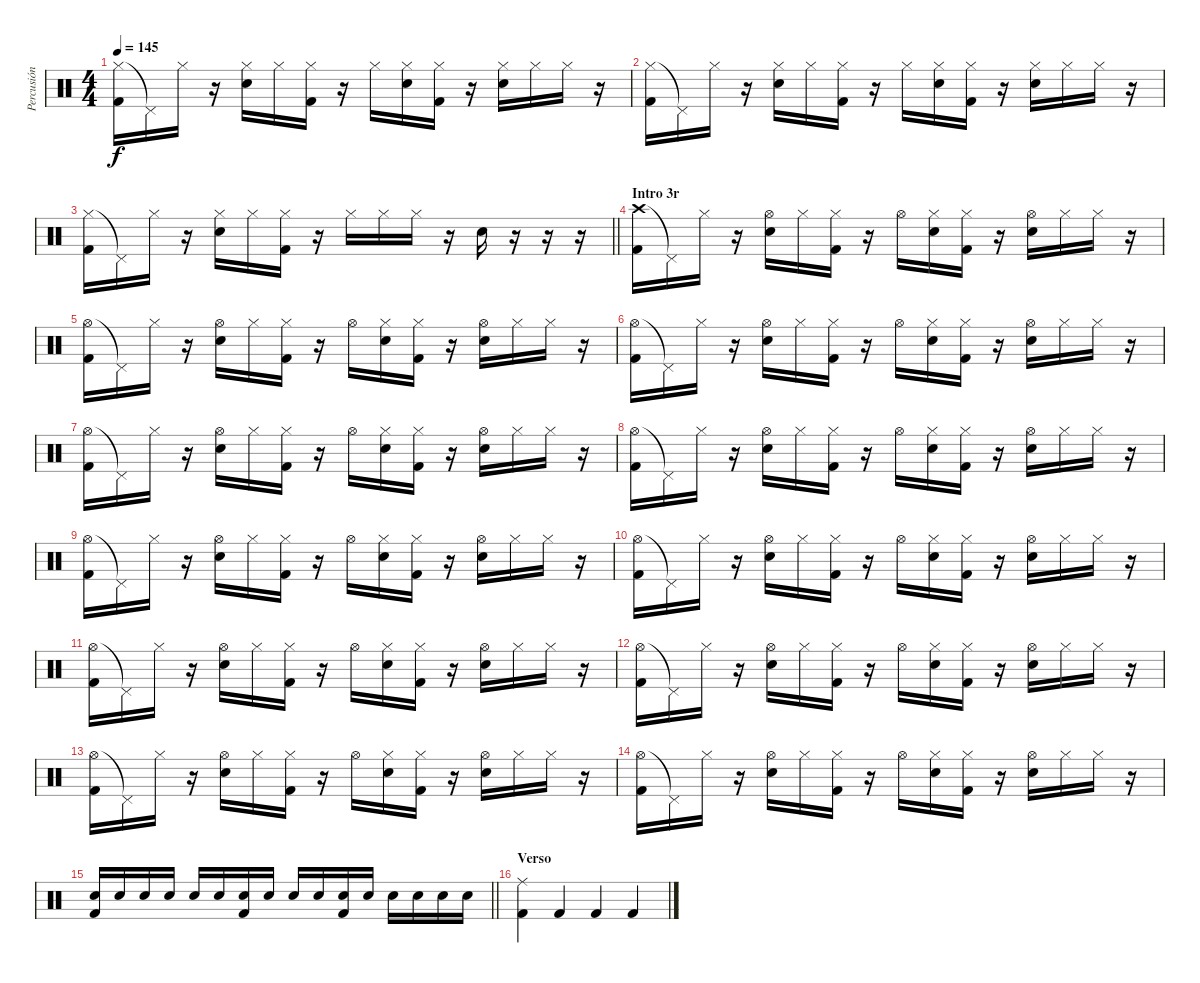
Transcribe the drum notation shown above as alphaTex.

\track ("Percusión" "Percusión") {instrument percussion}
\staff {score}
\articulation defaults
\ts (4 4)
\tempo 145
\clef neutral
\ks c
("Hi-Hat (closed)" "Kick (hit) 2").16{dy f} "Pedal Hi-Hat (hit)"{t}.16 "Hi-Hat (closed)".16 r.16 ("Hi-Hat (closed)" "Electric Snare (hit)").16 "Hi-Hat (closed)".16 ("Hi-Hat (closed)" "Kick (hit) 2").16 r.16 "Hi-Hat (closed)".16 ("Hi-Hat (closed)" "Electric Snare (hit)").16 ("Hi-Hat (closed)" "Kick (hit) 2").16 r.16 ("Hi-Hat (closed)" "Electric Snare (hit)").16 "Hi-Hat (closed)".16 "Hi-Hat (closed)".16 r.16 |
("Hi-Hat (closed)" "Kick (hit) 2").16 "Pedal Hi-Hat (hit)"{t}.16 "Hi-Hat (closed)".16 r.16 ("Hi-Hat (closed)" "Electric Snare (hit)").16 "Hi-Hat (closed)".16 ("Hi-Hat (closed)" "Kick (hit) 2").16 r.16 "Hi-Hat (closed)".16 ("Hi-Hat (closed)" "Electric Snare (hit)").16 ("Hi-Hat (closed)" "Kick (hit) 2").16 r.16 ("Hi-Hat (closed)" "Electric Snare (hit)").16 "Hi-Hat (closed)".16 "Hi-Hat (closed)".16 r.16 |
\barLineRight lightlight
("Hi-Hat (closed)" "Kick (hit) 2").16 "Pedal Hi-Hat (hit)"{t}.16 "Hi-Hat (closed)".16 r.16 ("Hi-Hat (closed)" "Electric Snare (hit)").16 "Hi-Hat (closed)".16 ("Hi-Hat (closed)" "Kick (hit) 2").16 r.16 "Hi-Hat (closed)".16 "Hi-Hat (closed)".16 "Hi-Hat (closed)".16 r.16 "Electric Snare (hit)".16 r.16 r.16 r.16 |
\section ("" "Intro 3r")
("Crash high (hit)" "Kick (hit) 2").16 "Pedal Hi-Hat (hit)"{t}.16 "Hi-Hat (closed)".16 r.16 ("Hi-Hat (open)" "Electric Snare (hit)").16 "Hi-Hat (closed)".16 ("Hi-Hat (closed)" "Kick (hit) 2").16 r.16 "Hi-Hat (open)".16 ("Hi-Hat (closed)" "Electric Snare (hit)").16 ("Hi-Hat (closed)" "Kick (hit) 2").16 r.16 ("Hi-Hat (open)" "Electric Snare (hit)").16 "Hi-Hat (closed)".16 "Hi-Hat (closed)".16 r.16 |
("Hi-Hat (open)" "Kick (hit) 2").16 "Pedal Hi-Hat (hit)"{t}.16 "Hi-Hat (closed)".16 r.16 ("Hi-Hat (open)" "Electric Snare (hit)").16 "Hi-Hat (closed)".16 ("Hi-Hat (closed)" "Kick (hit) 2").16 r.16 "Hi-Hat (open)".16 ("Hi-Hat (closed)" "Electric Snare (hit)").16 ("Hi-Hat (closed)" "Kick (hit) 2").16 r.16 ("Hi-Hat (open)" "Electric Snare (hit)").16 "Hi-Hat (closed)".16 "Hi-Hat (closed)".16 r.16 |
("Hi-Hat (open)" "Kick (hit) 2").16 "Pedal Hi-Hat (hit)"{t}.16 "Hi-Hat (closed)".16 r.16 ("Hi-Hat (open)" "Electric Snare (hit)").16 "Hi-Hat (closed)".16 ("Hi-Hat (closed)" "Kick (hit) 2").16 r.16 "Hi-Hat (open)".16 ("Hi-Hat (closed)" "Electric Snare (hit)").16 ("Hi-Hat (closed)" "Kick (hit) 2").16 r.16 ("Hi-Hat (open)" "Electric Snare (hit)").16 "Hi-Hat (closed)".16 "Hi-Hat (closed)".16 r.16 |
("Hi-Hat (open)" "Kick (hit) 2").16 "Pedal Hi-Hat (hit)"{t}.16 "Hi-Hat (closed)".16 r.16 ("Hi-Hat (open)" "Electric Snare (hit)").16 "Hi-Hat (closed)".16 ("Hi-Hat (closed)" "Kick (hit) 2").16 r.16 "Hi-Hat (open)".16 ("Hi-Hat (closed)" "Electric Snare (hit)").16 ("Hi-Hat (closed)" "Kick (hit) 2").16 r.16 ("Hi-Hat (open)" "Electric Snare (hit)").16 "Hi-Hat (closed)".16 "Hi-Hat (closed)".16 r.16 |
("Hi-Hat (open)" "Kick (hit) 2").16 "Pedal Hi-Hat (hit)"{t}.16 "Hi-Hat (closed)".16 r.16 ("Hi-Hat (open)" "Electric Snare (hit)").16 "Hi-Hat (closed)".16 ("Hi-Hat (closed)" "Kick (hit) 2").16 r.16 "Hi-Hat (open)".16 ("Hi-Hat (closed)" "Electric Snare (hit)").16 ("Hi-Hat (closed)" "Kick (hit) 2").16 r.16 ("Hi-Hat (open)" "Electric Snare (hit)").16 "Hi-Hat (closed)".16 "Hi-Hat (closed)".16 r.16 |
("Hi-Hat (open)" "Kick (hit) 2").16 "Pedal Hi-Hat (hit)"{t}.16 "Hi-Hat (closed)".16 r.16 ("Hi-Hat (open)" "Electric Snare (hit)").16 "Hi-Hat (closed)".16 ("Hi-Hat (closed)" "Kick (hit) 2").16 r.16 "Hi-Hat (open)".16 ("Hi-Hat (closed)" "Electric Snare (hit)").16 ("Hi-Hat (closed)" "Kick (hit) 2").16 r.16 ("Hi-Hat (open)" "Electric Snare (hit)").16 "Hi-Hat (closed)".16 "Hi-Hat (closed)".16 r.16 |
("Hi-Hat (open)" "Kick (hit) 2").16 "Pedal Hi-Hat (hit)"{t}.16 "Hi-Hat (closed)".16 r.16 ("Hi-Hat (open)" "Electric Snare (hit)").16 "Hi-Hat (closed)".16 ("Hi-Hat (closed)" "Kick (hit) 2").16 r.16 "Hi-Hat (open)".16 ("Hi-Hat (closed)" "Electric Snare (hit)").16 ("Hi-Hat (closed)" "Kick (hit) 2").16 r.16 ("Hi-Hat (open)" "Electric Snare (hit)").16 "Hi-Hat (closed)".16 "Hi-Hat (closed)".16 r.16 |
("Hi-Hat (open)" "Kick (hit) 2").16 "Pedal Hi-Hat (hit)"{t}.16 "Hi-Hat (closed)".16 r.16 ("Hi-Hat (open)" "Electric Snare (hit)").16 "Hi-Hat (closed)".16 ("Hi-Hat (closed)" "Kick (hit) 2").16 r.16 "Hi-Hat (open)".16 ("Hi-Hat (closed)" "Electric Snare (hit)").16 ("Hi-Hat (closed)" "Kick (hit) 2").16 r.16 ("Hi-Hat (open)" "Electric Snare (hit)").16 "Hi-Hat (closed)".16 "Hi-Hat (closed)".16 r.16 |
("Hi-Hat (open)" "Kick (hit) 2").16 "Pedal Hi-Hat (hit)"{t}.16 "Hi-Hat (closed)".16 r.16 ("Hi-Hat (open)" "Electric Snare (hit)").16 "Hi-Hat (closed)".16 ("Hi-Hat (closed)" "Kick (hit) 2").16 r.16 "Hi-Hat (open)".16 ("Hi-Hat (closed)" "Electric Snare (hit)").16 ("Hi-Hat (closed)" "Kick (hit) 2").16 r.16 ("Hi-Hat (open)" "Electric Snare (hit)").16 "Hi-Hat (closed)".16 "Hi-Hat (closed)".16 r.16 |
("Hi-Hat (open)" "Kick (hit) 2").16 "Pedal Hi-Hat (hit)"{t}.16 "Hi-Hat (closed)".16 r.16 ("Hi-Hat (open)" "Electric Snare (hit)").16 "Hi-Hat (closed)".16 ("Hi-Hat (closed)" "Kick (hit) 2").16 r.16 "Hi-Hat (open)".16 ("Hi-Hat (closed)" "Electric Snare (hit)").16 ("Hi-Hat (closed)" "Kick (hit) 2").16 r.16 ("Hi-Hat (open)" "Electric Snare (hit)").16 "Hi-Hat (closed)".16 "Hi-Hat (closed)".16 r.16 |
("Hi-Hat (open)" "Kick (hit) 2").16 "Pedal Hi-Hat (hit)"{t}.16 "Hi-Hat (closed)".16 r.16 ("Hi-Hat (open)" "Electric Snare (hit)").16 "Hi-Hat (closed)".16 ("Hi-Hat (closed)" "Kick (hit) 2").16 r.16 "Hi-Hat (open)".16 ("Hi-Hat (closed)" "Electric Snare (hit)").16 ("Hi-Hat (closed)" "Kick (hit) 2").16 r.16 ("Hi-Hat (open)" "Electric Snare (hit)").16 "Hi-Hat (closed)".16 "Hi-Hat (closed)".16 r.16 |
\barLineRight lightlight
("Snare (hit) 2" "Kick (hit) 2").16 "Snare (hit) 2".16 "Snare (hit) 2".16 "Snare (hit) 2".16 "Snare (hit) 2".16 "Snare (hit) 2".16 ("Snare (hit) 2" "Kick (hit) 2").16 "Snare (hit) 2".16 "Snare (hit) 2".16 "Snare (hit) 2".16 ("Snare (hit) 2" "Kick (hit) 2").16 "Snare (hit) 2".16 "Snare (hit) 2".16 "Snare (hit) 2".16 "Snare (hit) 2".16 "Snare (hit) 2".16 |
\section ("" "Verso")
("Ride (middle)" "Kick (hit) 2").4 "Kick (hit) 2".4 "Kick (hit) 2".4 "Kick (hit) 2".4
